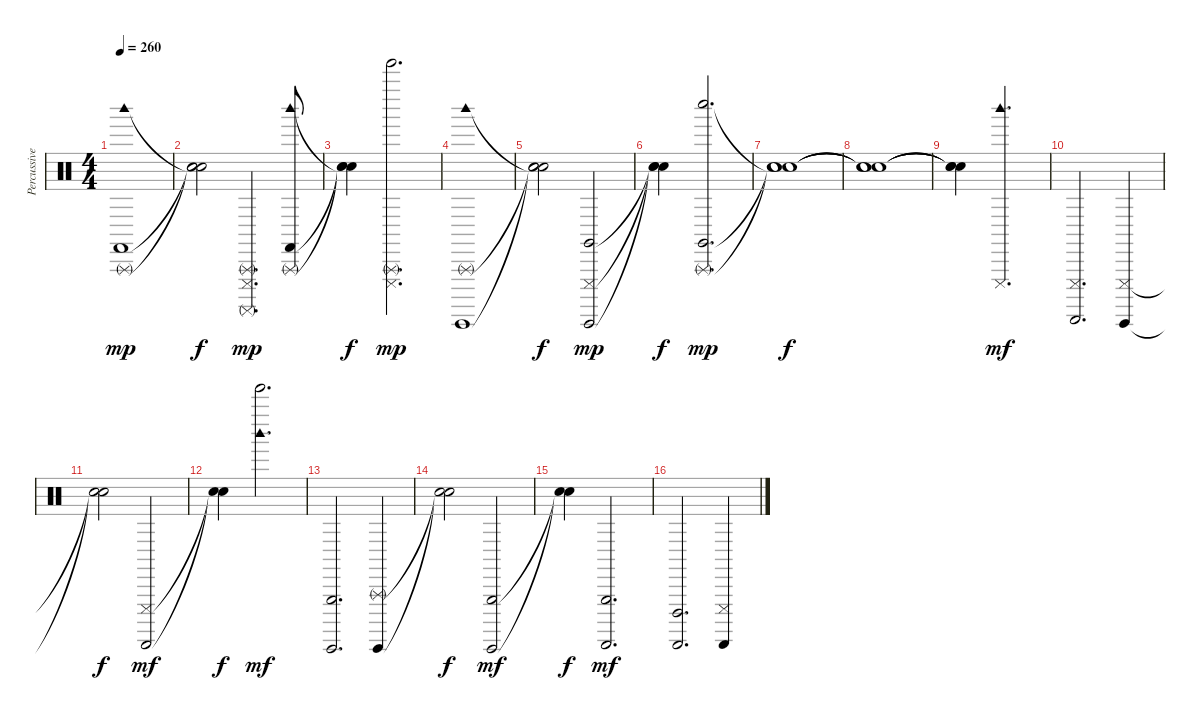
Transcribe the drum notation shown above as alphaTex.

\track ("Percussive Organ" "Percussive") {instrument percussion}
\staff {score}
\articulation defaults
\ts (4 4)
\tempo 260
\clef neutral
\ks c
("Woodblock high (hit)" "Castanets (hit)" "Triangle (rnute)").1{dy mp} |
("Snare (hit)"{t} "Snare (hit)"{t} "Snare (hit)"{t}).2{dy f} ("Cuica (mute)" "Surdo (mute)" "Triangle (rnute)").4{d dy mp} ("Woodblock high (hit)" "Castanets (hit)" "Triangle (rnute)").8 |
("Snare (hit)"{t} "Snare (hit)"{t} "Snare (hit)"{t}).4{dy f} ("Cuica (mute)" "Tinkle Bell (hit)" "Triangle (rnute)").2{d dy mp} |
("Woodblock high (hit)" "Guiro (hit)" "Triangle (rnute)").1 |
("Snare (hit)"{t} "Snare (hit)"{t} "Snare (hit)"{t}).2{dy f} ("Cuica (mute)" "Guiro (hit)" "Claves (hit)").2{dy mp} |
("Snare (hit)"{t} "Snare (hit)"{t} "Snare (hit)"{t}).4{dy f} ("Whistle low (hit)" "Triangle (rnute)" "Claves (hit)").2{d dy mp} |
("Snare (hit)"{t} "Snare (hit)"{t} "Snare (hit)"{t}).1{dy f} |
("Snare (hit)"{t} "Snare (hit)"{t} "Snare (hit)"{t}).1 |
("Snare (hit)"{t} "Snare (hit)"{t} "Snare (hit)"{t}).4 ("Woodblock high (hit)" "Cuica (mute)").2{d dy mf} |
("Guiro (scrap-return)" "Cuica (mute)").2{d} ("Guiro (hit)" "Cuica (mute)").4 |
("Snare (hit)"{t} "Snare (hit)"{t}).2{dy f} ("Guiro (scrap-return)" "Cuica (mute)").2{dy mf} |
("Snare (hit)"{t} "Snare (hit)"{t}).4{dy f} ("Tinkle Bell (hit)" "Woodblock high (hit)").2{d dy mf} |
("Triangle (hit)" "Guiro (hit)").2{d} ("Triangle (rnute)" "Guiro (hit)").4 |
("Snare (hit)"{t} "Snare (hit)"{t}).2{dy f} ("Triangle (hit)" "Guiro (hit)").2{dy mf} |
("Snare (hit)"{t} "Snare (hit)"{t}).4{dy f} ("Triangle (hit)" "Guiro (scrap-return)").2{d dy mf} |
("Cuica (open)" "Guiro (scrap-return)").2{d} ("Cuica (mute)" "Guiro (scrap-return)").4
